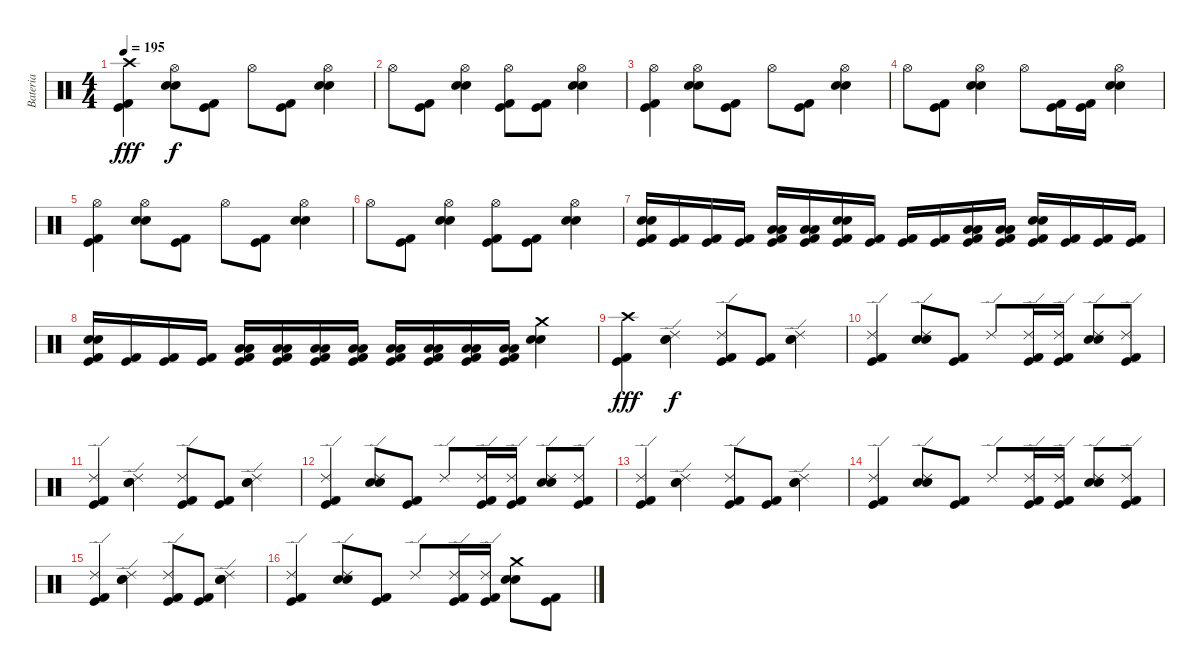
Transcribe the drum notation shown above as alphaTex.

\track ("Bateria" "Bateria") {instrument percussion}
\staff {score}
\articulation defaults
\ts (4 4)
\tempo 195
\clef neutral
\ks c
("Crash high (hit)" "Kick (hit) 2" "Kick (hit)").4{dy fff} ("Hi-Hat (open)" "Electric Snare (hit)" "Snare (hit) 2").8{dy f} ("Kick (hit) 2" "Kick (hit)").8 "Hi-Hat (open)".8 ("Kick (hit) 2" "Kick (hit)").8 ("Hi-Hat (open)" "Electric Snare (hit)" "Snare (hit) 2").4 |
"Hi-Hat (open)".8 ("Kick (hit) 2" "Kick (hit)").8 ("Hi-Hat (open)" "Electric Snare (hit)" "Snare (hit) 2").4 ("Hi-Hat (open)" "Kick (hit) 2" "Kick (hit)").8 ("Kick (hit) 2" "Kick (hit)").8 ("Hi-Hat (open)" "Electric Snare (hit)" "Snare (hit) 2").4 |
("Hi-Hat (open)" "Kick (hit) 2" "Kick (hit)").4 ("Hi-Hat (open)" "Electric Snare (hit)" "Snare (hit) 2").8 ("Kick (hit) 2" "Kick (hit)").8 "Hi-Hat (open)".8 ("Kick (hit) 2" "Kick (hit)").8 ("Hi-Hat (open)" "Electric Snare (hit)" "Snare (hit) 2").4 |
"Hi-Hat (open)".8 ("Kick (hit) 2" "Kick (hit)").8 ("Hi-Hat (open)" "Electric Snare (hit)" "Snare (hit) 2").4 "Hi-Hat (open)".8 ("Kick (hit) 2" "Kick (hit)").16 ("Kick (hit) 2" "Kick (hit)").16 ("Hi-Hat (open)" "Electric Snare (hit)" "Snare (hit) 2").4 |
("Hi-Hat (open)" "Kick (hit) 2" "Kick (hit)").4 ("Hi-Hat (open)" "Electric Snare (hit)" "Snare (hit) 2").8 ("Kick (hit) 2" "Kick (hit)").8 "Hi-Hat (open)".8 ("Kick (hit) 2" "Kick (hit)").8 ("Hi-Hat (open)" "Electric Snare (hit)" "Snare (hit) 2").4 |
"Hi-Hat (open)".8 ("Kick (hit) 2" "Kick (hit)").8 ("Hi-Hat (open)" "Electric Snare (hit)" "Snare (hit) 2").4 ("Hi-Hat (open)" "Kick (hit) 2" "Kick (hit)").8 ("Kick (hit) 2" "Kick (hit)").8 ("Hi-Hat (open)" "Electric Snare (hit)" "Snare (hit) 2").4 |
("Electric Snare (hit)" "Snare (hit) 2" "Kick (hit) 2" "Kick (hit)").16 ("Kick (hit) 2" "Kick (hit)").16 ("Kick (hit) 2" "Kick (hit)").16 ("Kick (hit) 2" "Kick (hit)").16 ("Low Tom (hit)" "Low Floor Tom (hit)" "Kick (hit) 2" "Kick (hit)").16 ("Low Tom (hit)" "Low Floor Tom (hit)" "Kick (hit) 2" "Kick (hit)").16 ("Electric Snare (hit)" "Snare (hit) 2" "Kick (hit) 2" "Kick (hit)").16 ("Kick (hit) 2" "Kick (hit)").16 ("Kick (hit) 2" "Kick (hit)").16 ("Kick (hit) 2" "Kick (hit)").16 ("Low Tom (hit)" "Low Floor Tom (hit)" "Kick (hit) 2" "Kick (hit)").16 ("Low Tom (hit)" "Low Floor Tom (hit)" "Kick (hit) 2" "Kick (hit)").16 ("Electric Snare (hit)" "Snare (hit) 2" "Kick (hit) 2" "Kick (hit)").16 ("Kick (hit) 2" "Kick (hit)").16 ("Kick (hit) 2" "Kick (hit)").16 ("Kick (hit) 2" "Kick (hit)").16 |
("Electric Snare (hit)" "Snare (hit) 2" "Kick (hit) 2" "Kick (hit)").16 ("Kick (hit) 2" "Kick (hit)").16 ("Kick (hit) 2" "Kick (hit)").16 ("Kick (hit) 2" "Kick (hit)").16 ("Low Tom (hit)" "Low Floor Tom (hit)" "Kick (hit) 2" "Kick (hit)").16 ("Low Tom (hit)" "Low Floor Tom (hit)" "Kick (hit) 2" "Kick (hit)").16 ("Low Tom (hit)" "Low Floor Tom (hit)" "Kick (hit) 2" "Kick (hit)").16 ("Low Tom (hit)" "Low Floor Tom (hit)" "Kick (hit) 2" "Kick (hit)").16 ("Low Tom (hit)" "Low Floor Tom (hit)" "Kick (hit) 2" "Kick (hit)").16 ("Low Tom (hit)" "Low Floor Tom (hit)" "Kick (hit) 2" "Kick (hit)").16 ("Low Tom (hit)" "Low Floor Tom (hit)" "Kick (hit) 2" "Kick (hit)").16 ("Low Tom (hit)" "Low Floor Tom (hit)" "Kick (hit) 2" "Kick (hit)").16 ("Crash medium (hit)" "Electric Snare (hit)" "Snare (hit) 2").4 |
("Crash high (hit)" "Kick (hit) 2" "Kick (hit)").4{dy fff} ("Ride (edge) 2" "Electric Snare (hit)" "Snare (hit) 2").4{dy f} ("Ride (edge) 2" "Kick (hit) 2" "Kick (hit)").8 ("Kick (hit) 2" "Kick (hit)").8 ("Ride (edge) 2" "Electric Snare (hit)" "Snare (hit) 2").4 |
("Ride (edge) 2" "Kick (hit) 2" "Kick (hit)").4 ("Ride (edge) 2" "Electric Snare (hit)" "Snare (hit) 2").8 ("Kick (hit) 2" "Kick (hit)").8 "Ride (edge) 2".8 ("Ride (edge) 2" "Kick (hit) 2" "Kick (hit)").16 ("Ride (edge) 2" "Kick (hit) 2" "Kick (hit)").16 ("Ride (edge) 2" "Electric Snare (hit)" "Snare (hit) 2").8 ("Ride (edge) 2" "Kick (hit) 2" "Kick (hit)").8 |
("Ride (edge) 2" "Kick (hit) 2" "Kick (hit)").4 ("Ride (edge) 2" "Electric Snare (hit)" "Snare (hit) 2").4 ("Ride (edge) 2" "Kick (hit) 2" "Kick (hit)").8 ("Kick (hit) 2" "Kick (hit)").8 ("Ride (edge) 2" "Electric Snare (hit)" "Snare (hit) 2").4 |
("Ride (edge) 2" "Kick (hit) 2" "Kick (hit)").4 ("Ride (edge) 2" "Electric Snare (hit)" "Snare (hit) 2").8 ("Kick (hit) 2" "Kick (hit)").8 "Ride (edge) 2".8 ("Ride (edge) 2" "Kick (hit) 2" "Kick (hit)").16 ("Ride (edge) 2" "Kick (hit) 2" "Kick (hit)").16 ("Ride (edge) 2" "Electric Snare (hit)" "Snare (hit) 2").8 ("Ride (edge) 2" "Kick (hit) 2" "Kick (hit)").8 |
("Ride (edge) 2" "Kick (hit) 2" "Kick (hit)").4 ("Ride (edge) 2" "Electric Snare (hit)" "Snare (hit) 2").4 ("Ride (edge) 2" "Kick (hit) 2" "Kick (hit)").8 ("Kick (hit) 2" "Kick (hit)").8 ("Ride (edge) 2" "Electric Snare (hit)" "Snare (hit) 2").4 |
("Ride (edge) 2" "Kick (hit) 2" "Kick (hit)").4 ("Ride (edge) 2" "Electric Snare (hit)" "Snare (hit) 2").8 ("Kick (hit) 2" "Kick (hit)").8 "Ride (edge) 2".8 ("Ride (edge) 2" "Kick (hit) 2" "Kick (hit)").16 ("Ride (edge) 2" "Kick (hit) 2" "Kick (hit)").16 ("Ride (edge) 2" "Electric Snare (hit)" "Snare (hit) 2").8 ("Ride (edge) 2" "Kick (hit) 2" "Kick (hit)").8 |
("Ride (edge) 2" "Kick (hit) 2" "Kick (hit)").4 ("Ride (edge) 2" "Electric Snare (hit)" "Snare (hit) 2").4 ("Ride (edge) 2" "Kick (hit) 2" "Kick (hit)").8 ("Kick (hit) 2" "Kick (hit)").8 ("Ride (edge) 2" "Electric Snare (hit)" "Snare (hit) 2").4 |
("Ride (edge) 2" "Kick (hit) 2" "Kick (hit)").4 ("Ride (edge) 2" "Electric Snare (hit)" "Snare (hit) 2").8 ("Kick (hit) 2" "Kick (hit)").8 "Ride (edge) 2".8 ("Ride (edge) 2" "Kick (hit) 2" "Kick (hit)").16 ("Ride (edge) 2" "Kick (hit) 2" "Kick (hit)").16 ("Crash medium (hit)" "Electric Snare (hit)" "Snare (hit) 2").8 ("Kick (hit) 2" "Kick (hit)").8
